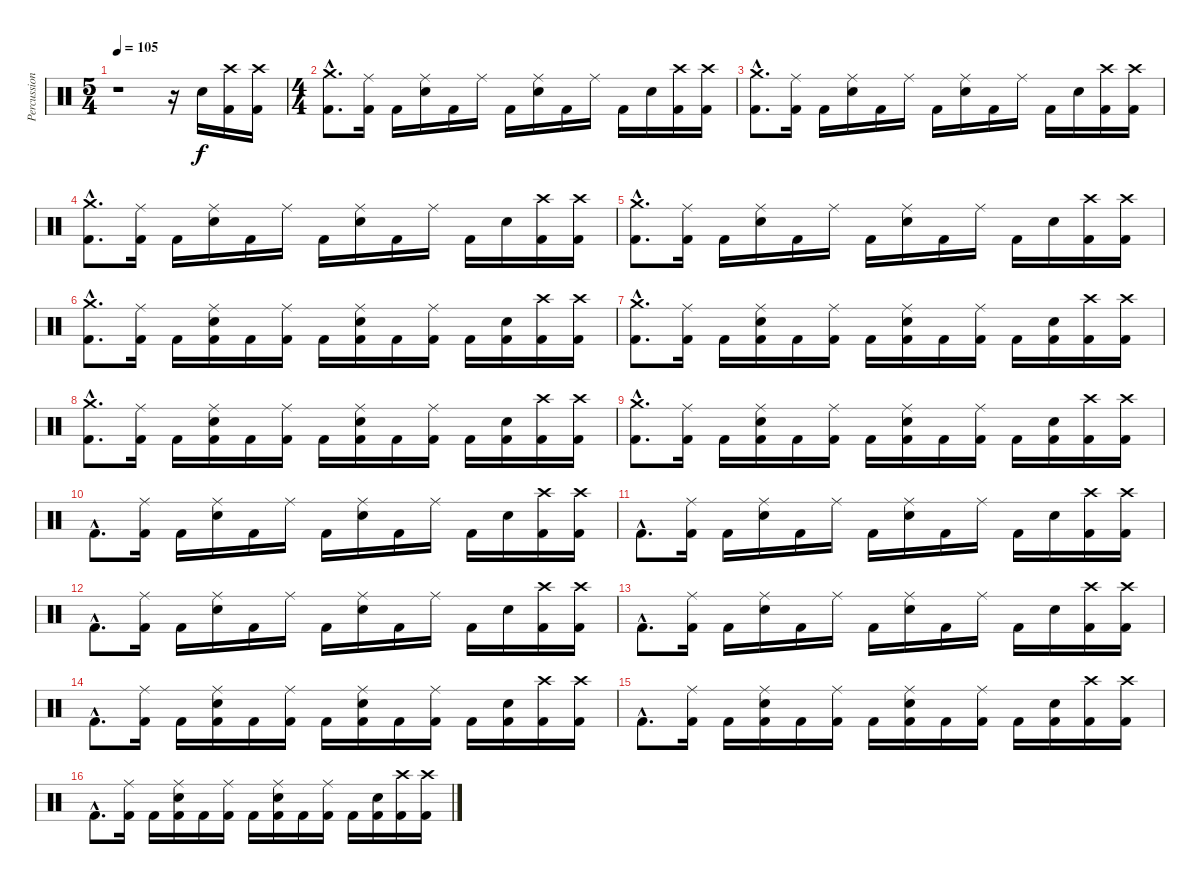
\track ("Percussion" "Percussion") {instrument percussion}
\staff {score}
\articulation defaults
\ts (5 4)
\tempo 105
\clef neutral
\ks c
r.1{dy fff} r.16 "Snare (hit) 2".16{dy f} ("Crash high (hit)" "Kick (hit) 2").16 ("Crash high (hit)" "Kick (hit) 2").16 |
\ts (4 4)
("Crash medium (hit)"{hac} "Kick (hit) 2"{hac}).8{d} ("Ride (middle)" "Kick (hit) 2").16 "Kick (hit) 2".16 ("Ride (middle)" "Snare (hit) 2").16 "Kick (hit) 2".16 "Ride (middle)".16 "Kick (hit) 2".16 ("Ride (middle)" "Snare (hit) 2").16 "Kick (hit) 2".16 "Ride (middle)".16 "Kick (hit) 2".16 "Snare (hit) 2".16 ("Crash high (hit)" "Kick (hit) 2").16 ("Crash high (hit)" "Kick (hit) 2").16 |
("Crash medium (hit)"{hac} "Kick (hit) 2"{hac}).8{d} ("Ride (middle)" "Kick (hit) 2").16 "Kick (hit) 2".16 ("Ride (middle)" "Snare (hit) 2").16 "Kick (hit) 2".16 "Ride (middle)".16 "Kick (hit) 2".16 ("Ride (middle)" "Snare (hit) 2").16 "Kick (hit) 2".16 "Ride (middle)".16 "Kick (hit) 2".16 "Snare (hit) 2".16 ("Crash high (hit)" "Kick (hit) 2").16 ("Crash high (hit)" "Kick (hit) 2").16 |
("Crash medium (hit)"{hac} "Kick (hit) 2"{hac}).8{d} ("Ride (middle)" "Kick (hit) 2").16 "Kick (hit) 2".16 ("Ride (middle)" "Snare (hit) 2").16 "Kick (hit) 2".16 "Ride (middle)".16 "Kick (hit) 2".16 ("Ride (middle)" "Snare (hit) 2").16 "Kick (hit) 2".16 "Ride (middle)".16 "Kick (hit) 2".16 "Snare (hit) 2".16 ("Crash high (hit)" "Kick (hit) 2").16 ("Crash high (hit)" "Kick (hit) 2").16 |
("Crash medium (hit)"{hac} "Kick (hit) 2"{hac}).8{d} ("Ride (middle)" "Kick (hit) 2").16 "Kick (hit) 2".16 ("Ride (middle)" "Snare (hit) 2").16 "Kick (hit) 2".16 "Ride (middle)".16 "Kick (hit) 2".16 ("Ride (middle)" "Snare (hit) 2").16 "Kick (hit) 2".16 "Ride (middle)".16 "Kick (hit) 2".16 "Snare (hit) 2".16 ("Crash high (hit)" "Kick (hit) 2").16 ("Crash high (hit)" "Kick (hit) 2").16 |
("Crash medium (hit)"{hac} "Kick (hit) 2"{hac}).8{d} ("Ride (middle)" "Kick (hit) 2").16 "Kick (hit) 2".16 ("Ride (middle)" "Snare (hit) 2" "Kick (hit) 2").16 "Kick (hit) 2".16 ("Ride (middle)" "Kick (hit) 2").16 "Kick (hit) 2".16 ("Ride (middle)" "Snare (hit) 2" "Kick (hit) 2").16 "Kick (hit) 2".16 ("Ride (middle)" "Kick (hit) 2").16 "Kick (hit) 2".16 ("Snare (hit) 2" "Kick (hit) 2").16 ("Crash high (hit)" "Kick (hit) 2").16 ("Crash high (hit)" "Kick (hit) 2").16 |
("Crash medium (hit)"{hac} "Kick (hit) 2"{hac}).8{d} ("Ride (middle)" "Kick (hit) 2").16 "Kick (hit) 2".16 ("Ride (middle)" "Snare (hit) 2" "Kick (hit) 2").16 "Kick (hit) 2".16 ("Ride (middle)" "Kick (hit) 2").16 "Kick (hit) 2".16 ("Ride (middle)" "Snare (hit) 2" "Kick (hit) 2").16 "Kick (hit) 2".16 ("Ride (middle)" "Kick (hit) 2").16 "Kick (hit) 2".16 ("Snare (hit) 2" "Kick (hit) 2").16 ("Crash high (hit)" "Kick (hit) 2").16 ("Crash high (hit)" "Kick (hit) 2").16 |
("Crash medium (hit)"{hac} "Kick (hit) 2"{hac}).8{d} ("Ride (middle)" "Kick (hit) 2").16 "Kick (hit) 2".16 ("Ride (middle)" "Snare (hit) 2" "Kick (hit) 2").16 "Kick (hit) 2".16 ("Ride (middle)" "Kick (hit) 2").16 "Kick (hit) 2".16 ("Ride (middle)" "Snare (hit) 2" "Kick (hit) 2").16 "Kick (hit) 2".16 ("Ride (middle)" "Kick (hit) 2").16 "Kick (hit) 2".16 ("Snare (hit) 2" "Kick (hit) 2").16 ("Crash high (hit)" "Kick (hit) 2").16 ("Crash high (hit)" "Kick (hit) 2").16 |
("Crash medium (hit)"{hac} "Kick (hit) 2"{hac}).8{d} ("Ride (middle)" "Kick (hit) 2").16 "Kick (hit) 2".16 ("Ride (middle)" "Snare (hit) 2" "Kick (hit) 2").16 "Kick (hit) 2".16 ("Ride (middle)" "Kick (hit) 2").16 "Kick (hit) 2".16 ("Ride (middle)" "Snare (hit) 2" "Kick (hit) 2").16 "Kick (hit) 2".16 ("Ride (middle)" "Kick (hit) 2").16 "Kick (hit) 2".16 ("Snare (hit) 2" "Kick (hit) 2").16 ("Crash high (hit)" "Kick (hit) 2").16 ("Crash high (hit)" "Kick (hit) 2").16 |
"Kick (hit) 2"{hac}.8{d} ("Ride (middle)" "Kick (hit) 2").16 "Kick (hit) 2".16 ("Ride (middle)" "Snare (hit) 2").16 "Kick (hit) 2".16 "Ride (middle)".16 "Kick (hit) 2".16 ("Ride (middle)" "Snare (hit) 2").16 "Kick (hit) 2".16 "Ride (middle)".16 "Kick (hit) 2".16 "Snare (hit) 2".16 ("Crash high (hit)" "Kick (hit) 2").16 ("Crash high (hit)" "Kick (hit) 2").16 |
"Kick (hit) 2"{hac}.8{d} ("Ride (middle)" "Kick (hit) 2").16 "Kick (hit) 2".16 ("Ride (middle)" "Snare (hit) 2").16 "Kick (hit) 2".16 "Ride (middle)".16 "Kick (hit) 2".16 ("Ride (middle)" "Snare (hit) 2").16 "Kick (hit) 2".16 "Ride (middle)".16 "Kick (hit) 2".16 "Snare (hit) 2".16 ("Crash high (hit)" "Kick (hit) 2").16 ("Crash high (hit)" "Kick (hit) 2").16 |
"Kick (hit) 2"{hac}.8{d} ("Ride (middle)" "Kick (hit) 2").16 "Kick (hit) 2".16 ("Ride (middle)" "Snare (hit) 2").16 "Kick (hit) 2".16 "Ride (middle)".16 "Kick (hit) 2".16 ("Ride (middle)" "Snare (hit) 2").16 "Kick (hit) 2".16 "Ride (middle)".16 "Kick (hit) 2".16 "Snare (hit) 2".16 ("Crash high (hit)" "Kick (hit) 2").16 ("Crash high (hit)" "Kick (hit) 2").16 |
"Kick (hit) 2"{hac}.8{d} ("Ride (middle)" "Kick (hit) 2").16 "Kick (hit) 2".16 ("Ride (middle)" "Snare (hit) 2").16 "Kick (hit) 2".16 "Ride (middle)".16 "Kick (hit) 2".16 ("Ride (middle)" "Snare (hit) 2").16 "Kick (hit) 2".16 "Ride (middle)".16 "Kick (hit) 2".16 "Snare (hit) 2".16 ("Crash high (hit)" "Kick (hit) 2").16 ("Crash high (hit)" "Kick (hit) 2").16 |
"Kick (hit) 2"{hac}.8{d} ("Ride (middle)" "Kick (hit) 2").16 "Kick (hit) 2".16 ("Ride (middle)" "Snare (hit) 2" "Kick (hit) 2").16 "Kick (hit) 2".16 ("Ride (middle)" "Kick (hit) 2").16 "Kick (hit) 2".16 ("Ride (middle)" "Snare (hit) 2" "Kick (hit) 2").16 "Kick (hit) 2".16 ("Ride (middle)" "Kick (hit) 2").16 "Kick (hit) 2".16 ("Snare (hit) 2" "Kick (hit) 2").16 ("Crash high (hit)" "Kick (hit) 2").16 ("Crash high (hit)" "Kick (hit) 2").16 |
"Kick (hit) 2"{hac}.8{d} ("Ride (middle)" "Kick (hit) 2").16 "Kick (hit) 2".16 ("Ride (middle)" "Snare (hit) 2" "Kick (hit) 2").16 "Kick (hit) 2".16 ("Ride (middle)" "Kick (hit) 2").16 "Kick (hit) 2".16 ("Ride (middle)" "Snare (hit) 2" "Kick (hit) 2").16 "Kick (hit) 2".16 ("Ride (middle)" "Kick (hit) 2").16 "Kick (hit) 2".16 ("Snare (hit) 2" "Kick (hit) 2").16 ("Crash high (hit)" "Kick (hit) 2").16 ("Crash high (hit)" "Kick (hit) 2").16 |
"Kick (hit) 2"{hac}.8{d} ("Ride (middle)" "Kick (hit) 2").16 "Kick (hit) 2".16 ("Ride (middle)" "Snare (hit) 2" "Kick (hit) 2").16 "Kick (hit) 2".16 ("Ride (middle)" "Kick (hit) 2").16 "Kick (hit) 2".16 ("Ride (middle)" "Snare (hit) 2" "Kick (hit) 2").16 "Kick (hit) 2".16 ("Ride (middle)" "Kick (hit) 2").16 "Kick (hit) 2".16 ("Snare (hit) 2" "Kick (hit) 2").16 ("Crash high (hit)" "Kick (hit) 2").16 ("Crash high (hit)" "Kick (hit) 2").16
